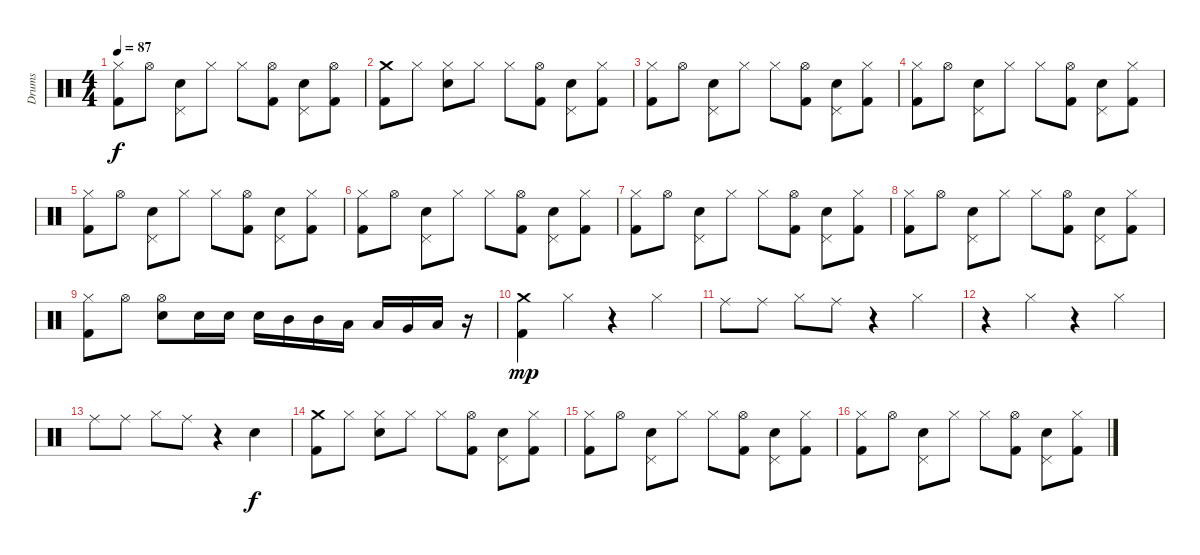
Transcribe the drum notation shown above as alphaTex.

\track ("Drums" "Drums") {instrument percussion}
\staff {score}
\articulation defaults
\ts (4 4)
\tempo 87
\clef neutral
\ks c
("Hi-Hat (closed)" "Kick (hit) 2").8{dy f} "Hi-Hat (open)".8 ("Pedal Hi-Hat (hit)" "Electric Snare (hit)").8 "Hi-Hat (closed)".8 "Hi-Hat (closed)".8 ("Hi-Hat (open)" "Kick (hit) 2").8 ("Pedal Hi-Hat (hit)" "Electric Snare (hit)").8 ("Hi-Hat (open)" "Kick (hit) 2").8 |
("Crash medium (hit)" "Kick (hit) 2").8 "Hi-Hat (closed)".8 ("Hi-Hat (closed)" "Electric Snare (hit)").8 "Hi-Hat (closed)".8 "Hi-Hat (closed)".8 ("Hi-Hat (open)" "Kick (hit) 2").8 ("Pedal Hi-Hat (hit)" "Electric Snare (hit)").8 ("Hi-Hat (closed)" "Kick (hit) 2").8 |
("Hi-Hat (closed)" "Kick (hit) 2").8 "Hi-Hat (open)".8 ("Pedal Hi-Hat (hit)" "Electric Snare (hit)").8 "Hi-Hat (closed)".8 "Hi-Hat (closed)".8 ("Hi-Hat (open)" "Kick (hit) 2").8 ("Pedal Hi-Hat (hit)" "Electric Snare (hit)").8 ("Hi-Hat (closed)" "Kick (hit) 2").8 |
("Hi-Hat (closed)" "Kick (hit) 2").8 "Hi-Hat (open)".8 ("Pedal Hi-Hat (hit)" "Electric Snare (hit)").8 "Hi-Hat (closed)".8 "Hi-Hat (closed)".8 ("Hi-Hat (open)" "Kick (hit) 2").8 ("Pedal Hi-Hat (hit)" "Electric Snare (hit)").8 ("Hi-Hat (closed)" "Kick (hit) 2").8 |
("Hi-Hat (closed)" "Kick (hit) 2").8 "Hi-Hat (open)".8 ("Pedal Hi-Hat (hit)" "Electric Snare (hit)").8 "Hi-Hat (closed)".8 "Hi-Hat (closed)".8 ("Hi-Hat (open)" "Kick (hit) 2").8 ("Pedal Hi-Hat (hit)" "Electric Snare (hit)").8 ("Hi-Hat (closed)" "Kick (hit) 2").8 |
("Hi-Hat (closed)" "Kick (hit) 2").8 "Hi-Hat (open)".8 ("Pedal Hi-Hat (hit)" "Electric Snare (hit)").8 "Hi-Hat (closed)".8 "Hi-Hat (closed)".8 ("Hi-Hat (open)" "Kick (hit) 2").8 ("Pedal Hi-Hat (hit)" "Electric Snare (hit)").8 ("Hi-Hat (closed)" "Kick (hit) 2").8 |
("Hi-Hat (closed)" "Kick (hit) 2").8 "Hi-Hat (open)".8 ("Pedal Hi-Hat (hit)" "Electric Snare (hit)").8 "Hi-Hat (closed)".8 "Hi-Hat (closed)".8 ("Hi-Hat (open)" "Kick (hit) 2").8 ("Pedal Hi-Hat (hit)" "Electric Snare (hit)").8 ("Hi-Hat (closed)" "Kick (hit) 2").8 |
("Hi-Hat (closed)" "Kick (hit) 2").8 "Hi-Hat (open)".8 ("Pedal Hi-Hat (hit)" "Electric Snare (hit)").8 "Hi-Hat (closed)".8 "Hi-Hat (closed)".8 ("Hi-Hat (open)" "Kick (hit) 2").8 ("Pedal Hi-Hat (hit)" "Electric Snare (hit)").8 ("Hi-Hat (closed)" "Kick (hit) 2").8 |
("Hi-Hat (closed)" "Kick (hit) 2").8 "Hi-Hat (open)".8 ("Hi-Hat (open)" "Electric Snare (hit)").8 "Electric Snare (hit)".16 "Electric Snare (hit)".16 "Electric Snare (hit)".16 "Mid Tom (hit)".16 "Mid Tom (hit)".16 "Low Tom (hit)".16 "Low Tom (hit)".16 "Very Low Tom (hit)".16 "Low Floor Tom (hit)".16 r.16 |
("Crash medium (hit)" "Kick (hit) 2").4{dy mp} "Hi-Hat (closed)".4 r.4 "Hi-Hat (closed)".4 |
"Ride (middle)".8 "Ride (middle)".8 "Hi-Hat (closed)".8 "Ride (middle)".8 r.4 "Hi-Hat (closed)".4 |
r.4 "Hi-Hat (closed)".4 r.4 "Hi-Hat (closed)".4 |
"Ride (middle)".8 "Ride (middle)".8 "Hi-Hat (closed)".8 "Ride (middle)".8 r.4 "Electric Snare (hit)".4{dy f} |
("Crash medium (hit)" "Kick (hit) 2").8 "Hi-Hat (closed)".8 ("Hi-Hat (closed)" "Electric Snare (hit)").8 "Hi-Hat (closed)".8 "Hi-Hat (closed)".8 ("Hi-Hat (open)" "Kick (hit) 2").8 ("Pedal Hi-Hat (hit)" "Electric Snare (hit)").8 ("Hi-Hat (closed)" "Kick (hit) 2").8 |
("Hi-Hat (closed)" "Kick (hit) 2").8 "Hi-Hat (open)".8 ("Pedal Hi-Hat (hit)" "Electric Snare (hit)").8 "Hi-Hat (closed)".8 "Hi-Hat (closed)".8 ("Hi-Hat (open)" "Kick (hit) 2").8 ("Pedal Hi-Hat (hit)" "Electric Snare (hit)").8 ("Hi-Hat (closed)" "Kick (hit) 2").8 |
("Hi-Hat (closed)" "Kick (hit) 2").8 "Hi-Hat (open)".8 ("Pedal Hi-Hat (hit)" "Electric Snare (hit)").8 "Hi-Hat (closed)".8 "Hi-Hat (closed)".8 ("Hi-Hat (open)" "Kick (hit) 2").8 ("Pedal Hi-Hat (hit)" "Electric Snare (hit)").8 ("Hi-Hat (closed)" "Kick (hit) 2").8
